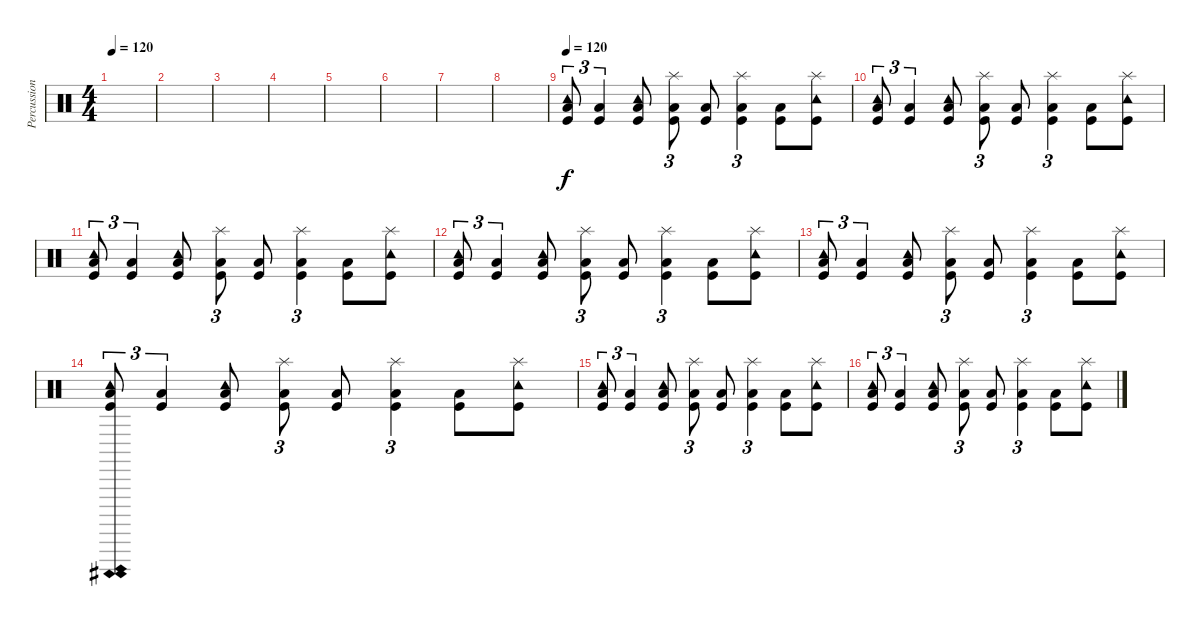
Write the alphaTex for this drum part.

\track ("Percussion" "Percussion") {instrument percussion}
\staff {score}
\articulation defaults
\ts (4 4)
\tempo 120
\tempo 135
\tempo 120
\clef neutral
\ks c
|
|
|
|
|
|
|
|
\tempo 120
("Tambourine (hit)" "Low Tom (hit)" "Kick (hit)").8{tu (3 2)} ("Low Tom (hit)" "Kick (hit)").4{tu (3 2)} ("Low Tom (hit)" "Tambourine (hit)" "Kick (hit)").8 ("Low Tom (hit)" "Splash (hit)" "Kick (hit)").8{tu (3 2)} ("Low Tom (hit)" "Kick (hit)").8 ("Splash (hit)" "Low Tom (hit)" "Kick (hit)").4{tu (3 2)} ("Low Tom (hit)" "Kick (hit)").8 ("Splash (hit)" "Tambourine (hit)" "Kick (hit)").8 |
("Tambourine (hit)" "Low Tom (hit)" "Kick (hit)").8{tu (3 2)} ("Low Tom (hit)" "Kick (hit)").4{tu (3 2)} ("Low Tom (hit)" "Tambourine (hit)" "Kick (hit)").8 ("Low Tom (hit)" "Splash (hit)" "Kick (hit)").8{tu (3 2)} ("Low Tom (hit)" "Kick (hit)").8 ("Splash (hit)" "Low Tom (hit)" "Kick (hit)").4{tu (3 2)} ("Low Tom (hit)" "Kick (hit)").8 ("Splash (hit)" "Tambourine (hit)" "Kick (hit)").8 |
("Tambourine (hit)" "Low Tom (hit)" "Kick (hit)").8{tu (3 2)} ("Low Tom (hit)" "Kick (hit)").4{tu (3 2)} ("Low Tom (hit)" "Tambourine (hit)" "Kick (hit)").8 ("Low Tom (hit)" "Splash (hit)" "Kick (hit)").8{tu (3 2)} ("Low Tom (hit)" "Kick (hit)").8 ("Splash (hit)" "Low Tom (hit)" "Kick (hit)").4{tu (3 2)} ("Low Tom (hit)" "Kick (hit)").8 ("Splash (hit)" "Tambourine (hit)" "Kick (hit)").8 |
("Tambourine (hit)" "Low Tom (hit)" "Kick (hit)").8{tu (3 2)} ("Low Tom (hit)" "Kick (hit)").4{tu (3 2)} ("Low Tom (hit)" "Tambourine (hit)" "Kick (hit)").8 ("Low Tom (hit)" "Splash (hit)" "Kick (hit)").8{tu (3 2)} ("Low Tom (hit)" "Kick (hit)").8 ("Splash (hit)" "Low Tom (hit)" "Kick (hit)").4{tu (3 2)} ("Low Tom (hit)" "Kick (hit)").8 ("Splash (hit)" "Tambourine (hit)" "Kick (hit)").8 |
("Tambourine (hit)" "Low Tom (hit)" "Kick (hit)").8{tu (3 2)} ("Low Tom (hit)" "Kick (hit)").4{tu (3 2)} ("Low Tom (hit)" "Tambourine (hit)" "Kick (hit)").8 ("Low Tom (hit)" "Splash (hit)" "Kick (hit)").8{tu (3 2)} ("Low Tom (hit)" "Kick (hit)").8 ("Splash (hit)" "Low Tom (hit)" "Kick (hit)").4{tu (3 2)} ("Low Tom (hit)" "Kick (hit)").8 ("Splash (hit)" "Tambourine (hit)" "Kick (hit)").8 |
("Tambourine (hit)"{ah 12} "Low Tom (hit)"{ah 12} "Kick (hit)"{ah 12}).8{tu (3 2)} ("Low Tom (hit)" "Kick (hit)").4{tu (3 2)} ("Low Tom (hit)" "Tambourine (hit)" "Kick (hit)").8 ("Low Tom (hit)" "Splash (hit)" "Kick (hit)").8{tu (3 2)} ("Low Tom (hit)" "Kick (hit)").8 ("Splash (hit)" "Low Tom (hit)" "Kick (hit)").4{tu (3 2)} ("Low Tom (hit)" "Kick (hit)").8 ("Splash (hit)" "Tambourine (hit)" "Kick (hit)").8 |
("Tambourine (hit)" "Low Tom (hit)" "Kick (hit)").8{tu (3 2)} ("Low Tom (hit)" "Kick (hit)").4{tu (3 2)} ("Low Tom (hit)" "Tambourine (hit)" "Kick (hit)").8 ("Low Tom (hit)" "Splash (hit)" "Kick (hit)").8{tu (3 2)} ("Low Tom (hit)" "Kick (hit)").8 ("Splash (hit)" "Low Tom (hit)" "Kick (hit)").4{tu (3 2)} ("Low Tom (hit)" "Kick (hit)").8 ("Splash (hit)" "Tambourine (hit)" "Kick (hit)").8 |
("Tambourine (hit)" "Low Tom (hit)" "Kick (hit)").8{tu (3 2)} ("Low Tom (hit)" "Kick (hit)").4{tu (3 2)} ("Low Tom (hit)" "Tambourine (hit)" "Kick (hit)").8 ("Low Tom (hit)" "Splash (hit)" "Kick (hit)").8{tu (3 2)} ("Low Tom (hit)" "Kick (hit)").8 ("Splash (hit)" "Low Tom (hit)" "Kick (hit)").4{tu (3 2)} ("Low Tom (hit)" "Kick (hit)").8 ("Splash (hit)" "Tambourine (hit)" "Kick (hit)").8
